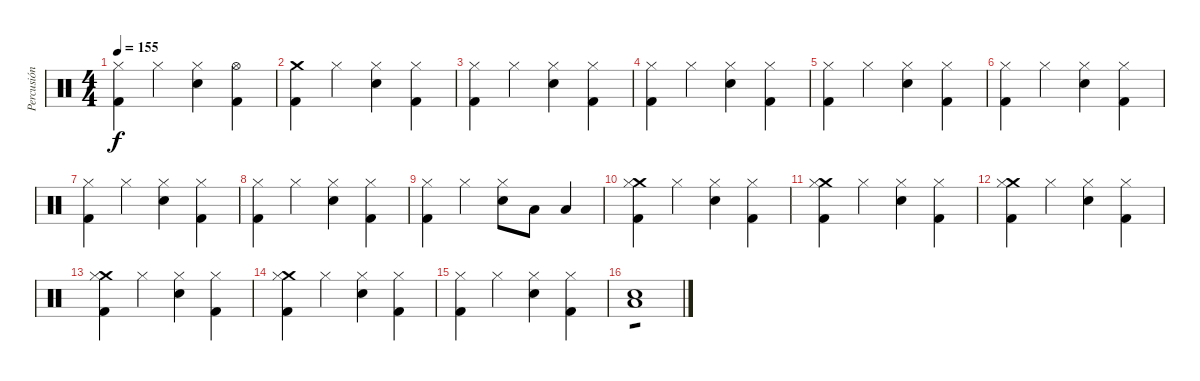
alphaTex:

\track ("Percusión" "Percusión") {instrument percussion}
\staff {score}
\articulation defaults
\ts (4 4)
\tempo 155
\clef neutral
\ks c
("Hi-Hat (closed)" "Kick (hit) 2").4{dy f} "Hi-Hat (closed)".4 ("Hi-Hat (closed)" "Electric Snare (hit)").4 ("Hi-Hat (open)" "Kick (hit) 2").4 |
("Crash medium (hit)" "Kick (hit) 2").4 "Hi-Hat (closed)".4 ("Hi-Hat (closed)" "Electric Snare (hit)").4 ("Hi-Hat (closed)" "Kick (hit) 2").4 |
("Hi-Hat (closed)" "Kick (hit) 2").4 "Hi-Hat (closed)".4 ("Hi-Hat (closed)" "Electric Snare (hit)").4 ("Hi-Hat (closed)" "Kick (hit) 2").4 |
("Hi-Hat (closed)" "Kick (hit) 2").4 "Hi-Hat (closed)".4 ("Hi-Hat (closed)" "Electric Snare (hit)").4 ("Hi-Hat (closed)" "Kick (hit) 2").4 |
("Hi-Hat (closed)" "Kick (hit) 2").4 "Hi-Hat (closed)".4 ("Hi-Hat (closed)" "Electric Snare (hit)").4 ("Hi-Hat (closed)" "Kick (hit) 2").4 |
("Hi-Hat (closed)" "Kick (hit) 2").4 "Hi-Hat (closed)".4 ("Hi-Hat (closed)" "Electric Snare (hit)").4 ("Hi-Hat (closed)" "Kick (hit) 2").4 |
("Hi-Hat (closed)" "Kick (hit) 2").4 "Hi-Hat (closed)".4 ("Hi-Hat (closed)" "Electric Snare (hit)").4 ("Hi-Hat (closed)" "Kick (hit) 2").4 |
("Hi-Hat (closed)" "Kick (hit) 2").4 "Hi-Hat (closed)".4 ("Hi-Hat (closed)" "Electric Snare (hit)").4 ("Hi-Hat (closed)" "Kick (hit) 2").4 |
("Hi-Hat (closed)" "Kick (hit) 2").4 "Hi-Hat (closed)".4 ("Hi-Hat (closed)" "Electric Snare (hit)").8 "Low Tom (hit)".8 "Low Floor Tom (hit)".4 |
("Crash medium (hit)" "Hi-Hat (closed)" "Kick (hit) 2").4 "Hi-Hat (closed)".4 ("Hi-Hat (closed)" "Electric Snare (hit)").4 ("Hi-Hat (closed)" "Kick (hit) 2").4 |
("Crash medium (hit)" "Hi-Hat (closed)" "Kick (hit) 2").4 "Hi-Hat (closed)".4 ("Hi-Hat (closed)" "Electric Snare (hit)").4 ("Hi-Hat (closed)" "Kick (hit) 2").4 |
("Crash medium (hit)" "Hi-Hat (closed)" "Kick (hit) 2").4 "Hi-Hat (closed)".4 ("Hi-Hat (closed)" "Electric Snare (hit)").4 ("Hi-Hat (closed)" "Kick (hit) 2").4 |
("Crash medium (hit)" "Hi-Hat (closed)" "Kick (hit) 2").4 "Hi-Hat (closed)".4 ("Hi-Hat (closed)" "Electric Snare (hit)").4 ("Hi-Hat (closed)" "Kick (hit) 2").4 |
("Crash medium (hit)" "Hi-Hat (closed)" "Kick (hit) 2").4 "Hi-Hat (closed)".4 ("Hi-Hat (closed)" "Electric Snare (hit)").4 ("Hi-Hat (closed)" "Kick (hit) 2").4 |
("Hi-Hat (closed)" "Kick (hit) 2").4 "Hi-Hat (closed)".4 ("Hi-Hat (closed)" "Electric Snare (hit)").4 ("Hi-Hat (closed)" "Kick (hit) 2").4 |
("Electric Snare (hit)" "Low Floor Tom (hit)").1{tp 1}
